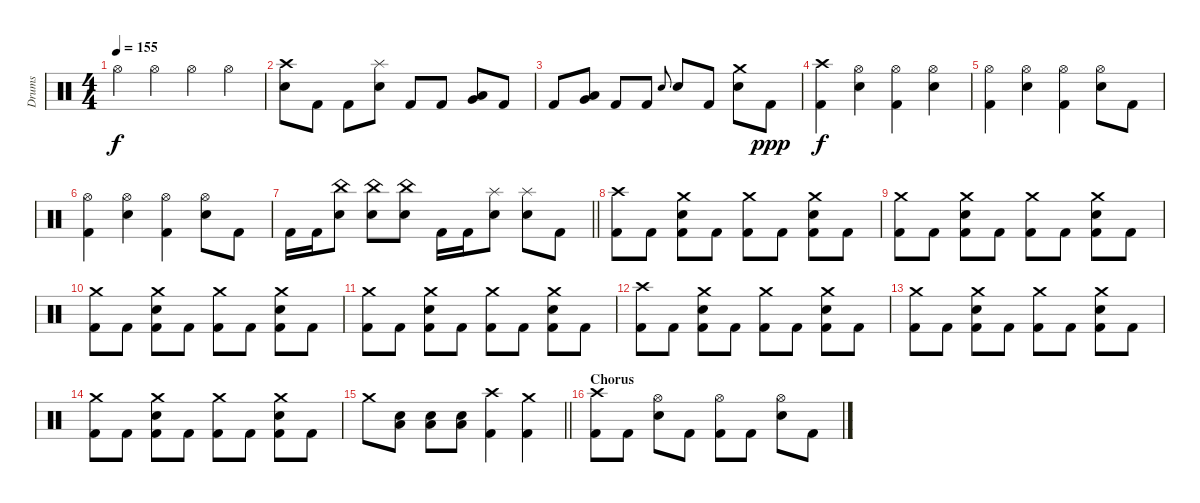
\track ("Drums" "Drums") {instrument percussion}
\staff {score}
\articulation defaults
\ts (4 4)
\tempo 155
\clef neutral
\ks c "Hi-Hat (open)".4{dy f} "Hi-Hat (open)".4 "Hi-Hat (open)".4 "Hi-Hat (open)".4
|
("Crash high (hit)" "Electric Snare (hit)").8 "Kick (hit) 2".8 "Kick (hit) 2".8 ("Splash (hit)" "Electric Snare (hit)").8 "Kick (hit) 2".8 "Kick (hit) 2".8 ("Low Tom (hit)" "Very Low Tom (hit)").8 "Kick (hit) 2".8 |
"Kick (hit) 2".8 ("Very Low Tom (hit)" "Low Floor Tom (hit)").8 "Kick (hit) 2".8 "Kick (hit) 2".8 "Electric Snare (hit)".8{gr onbeat} "Electric Snare (hit)".8 "Kick (hit) 2".8 ("Crash medium (hit)" "Electric Snare (hit)").8 "Kick (hit) 2".8{dy ppp} |
("Crash high (hit)" "Kick (hit) 2").4{dy f} ("Hi-Hat (open)" "Electric Snare (hit)").4 ("Hi-Hat (open)" "Kick (hit) 2").4 ("Hi-Hat (open)" "Electric Snare (hit)").4 |
("Hi-Hat (open)" "Kick (hit) 2").4 ("Hi-Hat (open)" "Electric Snare (hit)").4 ("Hi-Hat (open)" "Kick (hit) 2").4 ("Hi-Hat (open)" "Electric Snare (hit)").8 "Kick (hit) 2".8 |
("Hi-Hat (open)" "Kick (hit) 2").4 ("Hi-Hat (open)" "Electric Snare (hit)").4 ("Hi-Hat (open)" "Kick (hit) 2").4 ("Hi-Hat (open)" "Electric Snare (hit)").8 "Kick (hit) 2".8 |
\barLineRight lightlight "Kick (hit) 2".16 "Kick (hit) 2".16
("China (hit)" "Electric Snare (hit)").8 ("China (hit)" "Electric Snare (hit)").8 ("China (hit)" "Electric Snare (hit)").8 "Kick (hit) 2".16 "Kick (hit) 2".16 ("Splash (hit)" "Electric Snare (hit)").8 ("Splash (hit)" "Electric Snare (hit)").8 "Kick (hit) 2".8 |
("Crash high (hit)" "Kick (hit) 2").8 "Kick (hit) 2".8 ("Crash medium (hit)" "Electric Snare (hit)" "Kick (hit) 2").8 "Kick (hit) 2".8 ("Crash medium (hit)" "Kick (hit) 2").8 "Kick (hit) 2".8 ("Crash medium (hit)" "Electric Snare (hit)" "Kick (hit) 2").8 "Kick (hit) 2".8 |
("Crash medium (hit)" "Kick (hit) 2").8 "Kick (hit) 2".8 ("Crash medium (hit)" "Electric Snare (hit)" "Kick (hit) 2").8 "Kick (hit) 2".8 ("Crash medium (hit)" "Kick (hit) 2").8 "Kick (hit) 2".8 ("Crash medium (hit)" "Electric Snare (hit)" "Kick (hit) 2").8 "Kick (hit) 2".8 |
("Crash medium (hit)" "Kick (hit) 2").8 "Kick (hit) 2".8 ("Crash medium (hit)" "Electric Snare (hit)" "Kick (hit) 2").8 "Kick (hit) 2".8 ("Crash medium (hit)" "Kick (hit) 2").8 "Kick (hit) 2".8 ("Crash medium (hit)" "Electric Snare (hit)" "Kick (hit) 2").8 "Kick (hit) 2".8 |
("Crash medium (hit)" "Kick (hit) 2").8 "Kick (hit) 2".8 ("Crash medium (hit)" "Electric Snare (hit)" "Kick (hit) 2").8 "Kick (hit) 2".8 ("Crash medium (hit)" "Kick (hit) 2").8 "Kick (hit) 2".8 ("Crash medium (hit)" "Electric Snare (hit)" "Kick (hit) 2").8 "Kick (hit) 2".8 |
("Crash high (hit)" "Kick (hit) 2").8 "Kick (hit) 2".8 ("Crash medium (hit)" "Electric Snare (hit)" "Kick (hit) 2").8 "Kick (hit) 2".8 ("Crash medium (hit)" "Kick (hit) 2").8 "Kick (hit) 2".8 ("Crash medium (hit)" "Electric Snare (hit)" "Kick (hit) 2").8 "Kick (hit) 2".8 |
("Crash medium (hit)" "Kick (hit) 2").8 "Kick (hit) 2".8 ("Crash medium (hit)" "Electric Snare (hit)" "Kick (hit) 2").8 "Kick (hit) 2".8 ("Crash medium (hit)" "Kick (hit) 2").8 "Kick (hit) 2".8 ("Crash medium (hit)" "Electric Snare (hit)" "Kick (hit) 2").8 "Kick (hit) 2".8 |
("Crash medium (hit)" "Kick (hit) 2").8 "Kick (hit) 2".8 ("Crash medium (hit)" "Electric Snare (hit)" "Kick (hit) 2").8 "Kick (hit) 2".8 ("Crash medium (hit)" "Kick (hit) 2").8 "Kick (hit) 2".8 ("Crash medium (hit)" "Electric Snare (hit)" "Kick (hit) 2").8 "Kick (hit) 2".8 |
\barLineRight lightlight "Crash medium (hit)".8
("Low Floor Tom (hit)" "Electric Snare (hit)").8 ("Low Floor Tom (hit)" "Electric Snare (hit)").8 ("Low Floor Tom (hit)" "Electric Snare (hit)").8 ("Crash high (hit)" "Kick (hit) 2").4 ("Crash medium (hit)" "Kick (hit) 2").4 |
\section ("" "Chorus")
("Crash high (hit)" "Kick (hit) 2").8 "Kick (hit) 2".8 ("Hi-Hat (open)" "Electric Snare (hit)").8 "Kick (hit) 2".8 ("Hi-Hat (open)" "Kick (hit) 2").8 "Kick (hit) 2".8 ("Hi-Hat (open)" "Electric Snare (hit)").8 "Kick (hit) 2".8
